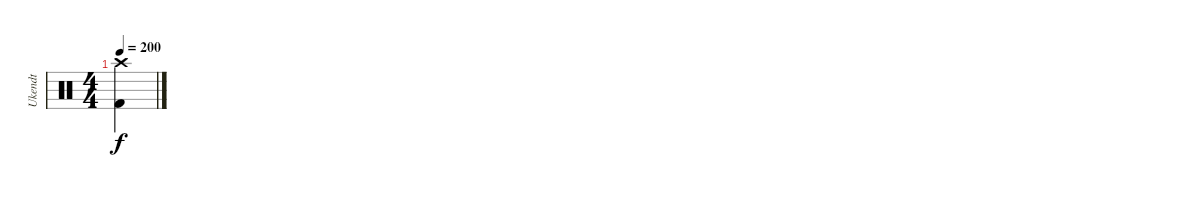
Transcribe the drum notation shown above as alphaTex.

\track ("Ukendt" "Ukendt") {instrument percussion}
\staff {score}
\articulation defaults
\ts (4 4)
\tempo 200
\clef neutral
\ks c
("Kick (hit) 2" "Crash high (hit)").4{dy f}
